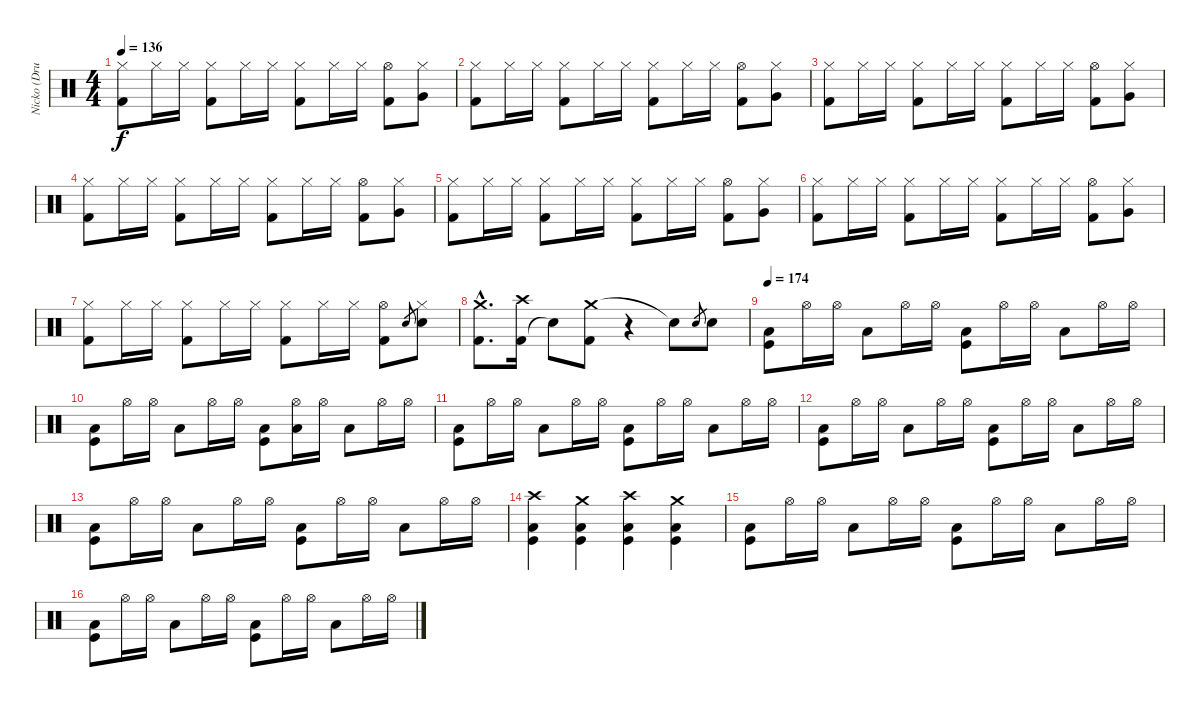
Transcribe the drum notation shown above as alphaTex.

\track ("Nicko (Drums)" "Nicko (Dru") {instrument percussion}
\staff {score}
\articulation defaults
\ts (4 4)
\tempo 136
\clef neutral
\ks c
("Hi-Hat (closed)" "Kick (hit) 2").8{dy f} "Hi-Hat (closed)".16 "Hi-Hat (closed)".16 ("Hi-Hat (closed)" "Kick (hit) 2").8 "Hi-Hat (closed)".16 "Hi-Hat (closed)".16 ("Hi-Hat (closed)" "Kick (hit) 2").8 "Hi-Hat (closed)".16 "Hi-Hat (closed)".16 ("Hi-Hat (open)" "Kick (hit) 2").8 ("Hi-Hat (closed)" "Very Low Tom (hit)").8 |
("Hi-Hat (closed)" "Kick (hit) 2").8 "Hi-Hat (closed)".16 "Hi-Hat (closed)".16 ("Hi-Hat (closed)" "Kick (hit) 2").8 "Hi-Hat (closed)".16 "Hi-Hat (closed)".16 ("Hi-Hat (closed)" "Kick (hit) 2").8 "Hi-Hat (closed)".16 "Hi-Hat (closed)".16 ("Hi-Hat (open)" "Kick (hit) 2").8 ("Hi-Hat (closed)" "Very Low Tom (hit)").8 |
("Hi-Hat (closed)" "Kick (hit) 2").8 "Hi-Hat (closed)".16 "Hi-Hat (closed)".16 ("Hi-Hat (closed)" "Kick (hit) 2").8 "Hi-Hat (closed)".16 "Hi-Hat (closed)".16 ("Hi-Hat (closed)" "Kick (hit) 2").8 "Hi-Hat (closed)".16 "Hi-Hat (closed)".16 ("Hi-Hat (open)" "Kick (hit) 2").8 ("Hi-Hat (closed)" "Very Low Tom (hit)").8 |
("Hi-Hat (closed)" "Kick (hit) 2").8 "Hi-Hat (closed)".16 "Hi-Hat (closed)".16 ("Hi-Hat (closed)" "Kick (hit) 2").8 "Hi-Hat (closed)".16 "Hi-Hat (closed)".16 ("Hi-Hat (closed)" "Kick (hit) 2").8 "Hi-Hat (closed)".16 "Hi-Hat (closed)".16 ("Hi-Hat (open)" "Kick (hit) 2").8 ("Hi-Hat (closed)" "Very Low Tom (hit)").8 |
("Hi-Hat (closed)" "Kick (hit) 2").8 "Hi-Hat (closed)".16 "Hi-Hat (closed)".16 ("Hi-Hat (closed)" "Kick (hit) 2").8 "Hi-Hat (closed)".16 "Hi-Hat (closed)".16 ("Hi-Hat (closed)" "Kick (hit) 2").8 "Hi-Hat (closed)".16 "Hi-Hat (closed)".16 ("Hi-Hat (open)" "Kick (hit) 2").8 ("Hi-Hat (closed)" "Very Low Tom (hit)").8 |
("Hi-Hat (closed)" "Kick (hit) 2").8 "Hi-Hat (closed)".16 "Hi-Hat (closed)".16 ("Hi-Hat (closed)" "Kick (hit) 2").8 "Hi-Hat (closed)".16 "Hi-Hat (closed)".16 ("Hi-Hat (closed)" "Kick (hit) 2").8 "Hi-Hat (closed)".16 "Hi-Hat (closed)".16 ("Hi-Hat (open)" "Kick (hit) 2").8 ("Hi-Hat (closed)" "Very Low Tom (hit)").8 |
("Hi-Hat (closed)" "Kick (hit) 2").8 "Hi-Hat (closed)".16 "Hi-Hat (closed)".16 ("Hi-Hat (closed)" "Kick (hit) 2").8 "Hi-Hat (closed)".16 "Hi-Hat (closed)".16 ("Hi-Hat (closed)" "Kick (hit) 2").8 "Hi-Hat (closed)".16 "Hi-Hat (closed)".16 ("Hi-Hat (open)" "Kick (hit) 2").8 "Snare (hit) 2".8{gr} ("Hi-Hat (closed)" "Snare (hit) 2").8 |
("Crash medium (hit)"{hac} "Kick (hit) 2"{hac}).8{d} ("Kick (hit) 2" "Crash high (hit)").16 "Snare (hit)"{t}.8 ("Crash medium (hit)" "Kick (hit) 2").8 r.4 "Snare (hit)"{t}.8 "Snare (hit) 2".8{gr} "Snare (hit) 2".8 |
\tempo 174
("Low Tom (hit)" "Kick (hit)").8 "Hi-Hat (open)".16 "Hi-Hat (open)".16 "Low Tom (hit)".8 "Hi-Hat (open)".16 "Hi-Hat (open)".16 ("Low Tom (hit)" "Kick (hit)").8 "Hi-Hat (open)".16 "Hi-Hat (open)".16 "Low Tom (hit)".8 "Hi-Hat (open)".16 "Hi-Hat (open)".16 |
("Low Tom (hit)" "Kick (hit)").8 "Hi-Hat (open)".16 "Hi-Hat (open)".16 "Low Tom (hit)".8 "Hi-Hat (open)".16 "Hi-Hat (open)".16 ("Low Tom (hit)" "Kick (hit)").8 ("Hi-Hat (open)" "Low Tom (hit)").16 "Hi-Hat (open)".16 "Low Tom (hit)".8 "Hi-Hat (open)".16 "Hi-Hat (open)".16 |
("Low Tom (hit)" "Kick (hit)").8 "Hi-Hat (open)".16 "Hi-Hat (open)".16 "Low Tom (hit)".8 "Hi-Hat (open)".16 "Hi-Hat (open)".16 ("Low Tom (hit)" "Kick (hit)").8 "Hi-Hat (open)".16 "Hi-Hat (open)".16 "Low Tom (hit)".8 "Hi-Hat (open)".16 "Hi-Hat (open)".16 |
("Low Tom (hit)" "Kick (hit)").8 "Hi-Hat (open)".16 "Hi-Hat (open)".16 "Low Tom (hit)".8 "Hi-Hat (open)".16 "Hi-Hat (open)".16 ("Low Tom (hit)" "Kick (hit)").8 "Hi-Hat (open)".16 "Hi-Hat (open)".16 "Low Tom (hit)".8 "Hi-Hat (open)".16 "Hi-Hat (open)".16 |
("Low Tom (hit)" "Kick (hit)").8 "Hi-Hat (open)".16 "Hi-Hat (open)".16 "Low Tom (hit)".8 "Hi-Hat (open)".16 "Hi-Hat (open)".16 ("Low Tom (hit)" "Kick (hit)").8 "Hi-Hat (open)".16 "Hi-Hat (open)".16 "Low Tom (hit)".8 "Hi-Hat (open)".16 "Hi-Hat (open)".16 |
("Crash high (hit)" "Low Tom (hit)" "Kick (hit)").4 ("Crash medium (hit)" "Low Tom (hit)" "Kick (hit)").4 ("Crash high (hit)" "Low Tom (hit)" "Kick (hit)").4 ("Crash medium (hit)" "Low Tom (hit)" "Kick (hit)").4 |
("Low Tom (hit)" "Kick (hit)").8 "Hi-Hat (open)".16 "Hi-Hat (open)".16 "Low Tom (hit)".8 "Hi-Hat (open)".16 "Hi-Hat (open)".16 ("Low Tom (hit)" "Kick (hit)").8 "Hi-Hat (open)".16 "Hi-Hat (open)".16 "Low Tom (hit)".8 "Hi-Hat (open)".16 "Hi-Hat (open)".16 |
("Low Tom (hit)" "Kick (hit)").8 "Hi-Hat (open)".16 "Hi-Hat (open)".16 "Low Tom (hit)".8 "Hi-Hat (open)".16 "Hi-Hat (open)".16 ("Low Tom (hit)" "Kick (hit)").8 "Hi-Hat (open)".16 "Hi-Hat (open)".16 "Low Tom (hit)".8 "Hi-Hat (open)".16 "Hi-Hat (open)".16
